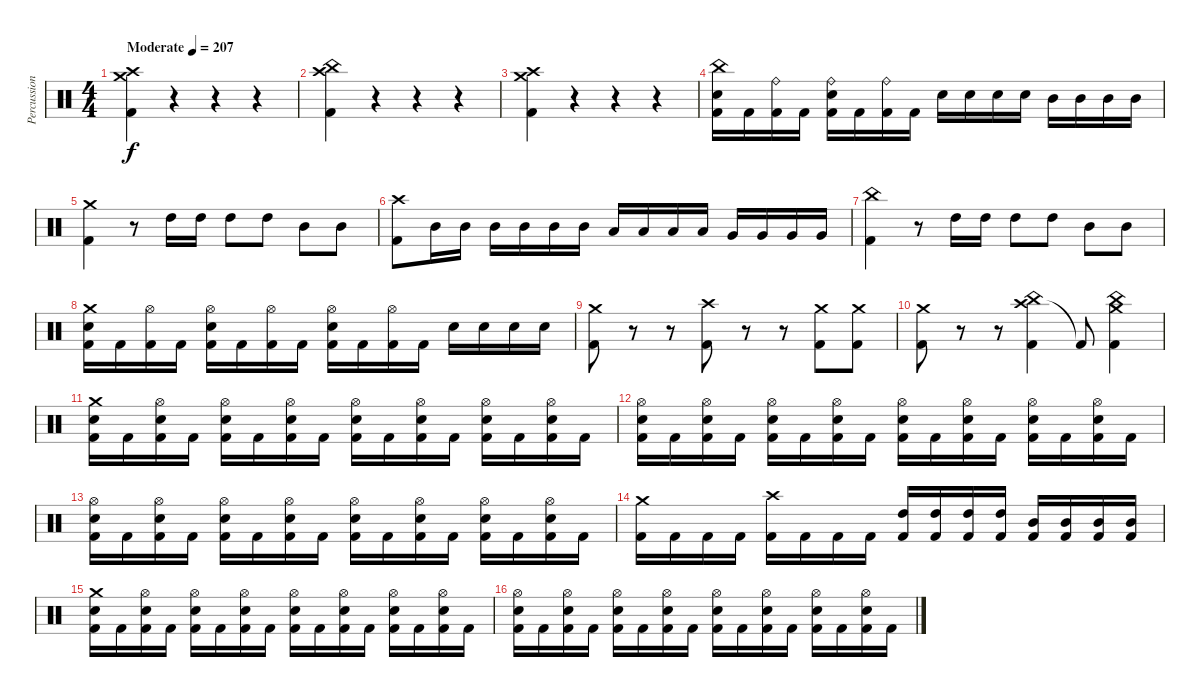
\track ("Percussion" "Percussion") {instrument percussion}
\staff {score}
\articulation defaults
\ts (4 4)
\tempo (207 "Moderate")
\clef neutral
\ks c
("Crash high (hit)" "Crash medium (hit)" "Kick (hit) 2").4{dy f} r.4 r.4 r.4 |
("Crash high (hit)" "China (hit)" "Kick (hit) 2").4 r.4 r.4 r.4 |
("Crash high (hit)" "Crash medium (hit)" "Kick (hit) 2").4 r.4 r.4 r.4 |
("China (hit)" "Electric Snare (hit)" "Kick (hit) 2").16 "Kick (hit) 2".16 ("Ride (bell)" "Kick (hit) 2").16 "Kick (hit) 2".16 ("Ride (bell)" "Electric Snare (hit)" "Kick (hit) 2").16 "Kick (hit) 2".16 ("Ride (bell)" "Kick (hit) 2").16 "Kick (hit) 2".16 "Electric Snare (hit)".16 "Electric Snare (hit)".16 "Electric Snare (hit)".16 "Electric Snare (hit)".16 "Mid Tom (hit)".16 "Mid Tom (hit)".16 "Mid Tom (hit)".16 "Mid Tom (hit)".16 |
("Crash medium (hit)" "Kick (hit) 2").4 r.8 "High Tom (hit)".16 "High Tom (hit)".16 "High Tom (hit)".8 "High Tom (hit)".8 "Mid Tom (hit)".8 "Mid Tom (hit)".8 |
("Crash high (hit)" "Kick (hit) 2").8 "Mid Tom (hit)".16 "Mid Tom (hit)".16 "Mid Tom (hit)".16 "Mid Tom (hit)".16 "Mid Tom (hit)".16 "Mid Tom (hit)".16 "Low Tom (hit)".16 "Low Tom (hit)".16 "Low Tom (hit)".16 "Low Tom (hit)".16 "Very Low Tom (hit)".16 "Very Low Tom (hit)".16 "Very Low Tom (hit)".16 "Very Low Tom (hit)".16 |
("China (hit)" "Kick (hit) 2").4 r.8 "High Tom (hit)".16 "High Tom (hit)".16 "High Tom (hit)".8 "High Tom (hit)".8 "Mid Tom (hit)".8 "Mid Tom (hit)".8 |
("Crash medium (hit)" "Electric Snare (hit)" "Kick (hit) 2").16 "Kick (hit) 2".16 ("Hi-Hat (open)" "Kick (hit) 2").16 "Kick (hit) 2".16 ("Hi-Hat (open)" "Electric Snare (hit)" "Kick (hit) 2").16 "Kick (hit) 2".16 ("Hi-Hat (open)" "Kick (hit) 2").16 "Kick (hit) 2".16 ("Hi-Hat (open)" "Electric Snare (hit)" "Kick (hit) 2").16 "Kick (hit) 2".16 ("Hi-Hat (open)" "Kick (hit) 2").16 "Kick (hit) 2".16 "Electric Snare (hit)".16 "Electric Snare (hit)".16 "Electric Snare (hit)".16 "Electric Snare (hit)".16 |
("Crash medium (hit)"{x} "Kick (hit) 2").8 r.8 r.8 ("Crash high (hit)"{x} "Kick (hit) 2").8 r.8 r.8 ("Crash medium (hit)"{x} "Kick (hit) 2").8 ("Crash medium (hit)"{x} "Kick (hit) 2").8 |
("Crash medium (hit)"{x} "Kick (hit) 2").8 r.8 r.8 ("Crash high (hit)" "China (hit)" "Kick (hit) 2").4 "Kick (hit) 2"{t}.8 ("Crash medium (hit)" "China (hit)" "Kick (hit) 2").4 |
("Crash medium (hit)" "Electric Snare (hit)" "Kick (hit) 2").16 "Kick (hit) 2".16 ("Hi-Hat (open)" "Electric Snare (hit)" "Kick (hit) 2").16 "Kick (hit) 2".16 ("Hi-Hat (open)" "Electric Snare (hit)" "Kick (hit) 2").16 "Kick (hit) 2".16 ("Hi-Hat (open)" "Electric Snare (hit)" "Kick (hit) 2").16 "Kick (hit) 2".16 ("Hi-Hat (open)" "Electric Snare (hit)" "Kick (hit) 2").16 "Kick (hit) 2".16 ("Hi-Hat (open)" "Electric Snare (hit)" "Kick (hit) 2").16 "Kick (hit) 2".16 ("Hi-Hat (open)" "Electric Snare (hit)" "Kick (hit) 2").16 "Kick (hit) 2".16 ("Hi-Hat (open)" "Electric Snare (hit)" "Kick (hit) 2").16 "Kick (hit) 2".16 |
("Hi-Hat (open)" "Electric Snare (hit)" "Kick (hit) 2").16 "Kick (hit) 2".16 ("Hi-Hat (open)" "Electric Snare (hit)" "Kick (hit) 2").16 "Kick (hit) 2".16 ("Hi-Hat (open)" "Electric Snare (hit)" "Kick (hit) 2").16 "Kick (hit) 2".16 ("Hi-Hat (open)" "Electric Snare (hit)" "Kick (hit) 2").16 "Kick (hit) 2".16 ("Hi-Hat (open)" "Electric Snare (hit)" "Kick (hit) 2").16 "Kick (hit) 2".16 ("Hi-Hat (open)" "Electric Snare (hit)" "Kick (hit) 2").16 "Kick (hit) 2".16 ("Hi-Hat (open)" "Electric Snare (hit)" "Kick (hit) 2").16 "Kick (hit) 2".16 ("Hi-Hat (open)" "Electric Snare (hit)" "Kick (hit) 2").16 "Kick (hit) 2".16 |
("Hi-Hat (open)" "Electric Snare (hit)" "Kick (hit) 2").16 "Kick (hit) 2".16 ("Hi-Hat (open)" "Electric Snare (hit)" "Kick (hit) 2").16 "Kick (hit) 2".16 ("Hi-Hat (open)" "Electric Snare (hit)" "Kick (hit) 2").16 "Kick (hit) 2".16 ("Hi-Hat (open)" "Electric Snare (hit)" "Kick (hit) 2").16 "Kick (hit) 2".16 ("Hi-Hat (open)" "Electric Snare (hit)" "Kick (hit) 2").16 "Kick (hit) 2".16 ("Hi-Hat (open)" "Electric Snare (hit)" "Kick (hit) 2").16 "Kick (hit) 2".16 ("Hi-Hat (open)" "Electric Snare (hit)" "Kick (hit) 2").16 "Kick (hit) 2".16 ("Hi-Hat (open)" "Electric Snare (hit)" "Kick (hit) 2").16 "Kick (hit) 2".16 |
("Crash medium (hit)" "Kick (hit) 2").16 "Kick (hit) 2".16 "Kick (hit) 2".16 "Kick (hit) 2".16 ("Crash high (hit)" "Kick (hit) 2").16 "Kick (hit) 2".16 "Kick (hit) 2".16 "Kick (hit) 2".16 ("High Tom (hit)" "Kick (hit) 2").16 ("High Tom (hit)" "Kick (hit) 2").16 ("High Tom (hit)" "Kick (hit) 2").16 ("High Tom (hit)" "Kick (hit) 2").16 ("Mid Tom (hit)" "Kick (hit) 2").16 ("Mid Tom (hit)" "Kick (hit) 2").16 ("Mid Tom (hit)" "Kick (hit) 2").16 ("Mid Tom (hit)" "Kick (hit) 2").16 |
("Crash medium (hit)" "Electric Snare (hit)" "Kick (hit) 2").16 "Kick (hit) 2".16 ("Hi-Hat (open)" "Electric Snare (hit)" "Kick (hit) 2").16 "Kick (hit) 2".16 ("Hi-Hat (open)" "Electric Snare (hit)" "Kick (hit) 2").16 "Kick (hit) 2".16 ("Hi-Hat (open)" "Electric Snare (hit)" "Kick (hit) 2").16 "Kick (hit) 2".16 ("Hi-Hat (open)" "Electric Snare (hit)" "Kick (hit) 2").16 "Kick (hit) 2".16 ("Hi-Hat (open)" "Electric Snare (hit)" "Kick (hit) 2").16 "Kick (hit) 2".16 ("Hi-Hat (open)" "Electric Snare (hit)" "Kick (hit) 2").16 "Kick (hit) 2".16 ("Hi-Hat (open)" "Electric Snare (hit)" "Kick (hit) 2").16 "Kick (hit) 2".16 |
("Hi-Hat (open)" "Electric Snare (hit)" "Kick (hit) 2").16 "Kick (hit) 2".16 ("Hi-Hat (open)" "Electric Snare (hit)" "Kick (hit) 2").16 "Kick (hit) 2".16 ("Hi-Hat (open)" "Electric Snare (hit)" "Kick (hit) 2").16 "Kick (hit) 2".16 ("Hi-Hat (open)" "Electric Snare (hit)" "Kick (hit) 2").16 "Kick (hit) 2".16 ("Hi-Hat (open)" "Electric Snare (hit)" "Kick (hit) 2").16 "Kick (hit) 2".16 ("Hi-Hat (open)" "Electric Snare (hit)" "Kick (hit) 2").16 "Kick (hit) 2".16 ("Hi-Hat (open)" "Electric Snare (hit)" "Kick (hit) 2").16 "Kick (hit) 2".16 ("Hi-Hat (open)" "Electric Snare (hit)" "Kick (hit) 2").16 "Kick (hit) 2".16
